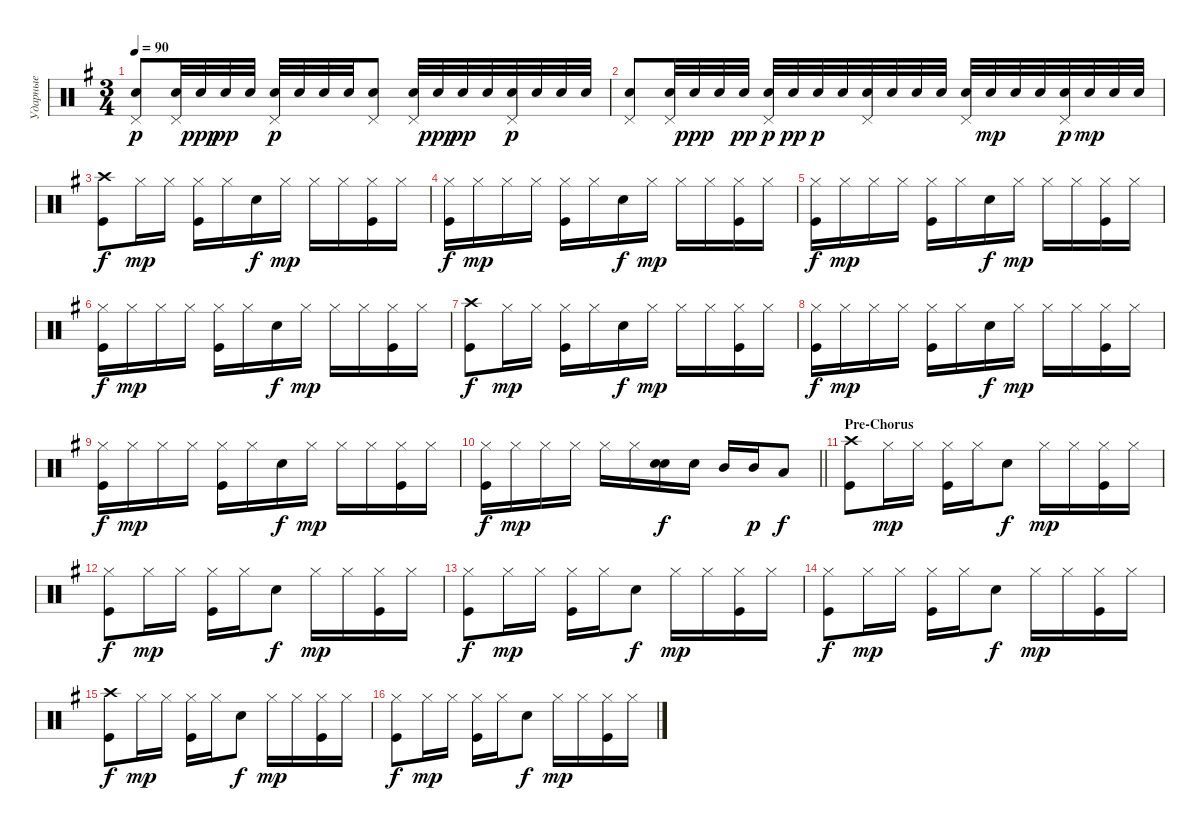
\track ("Ударные" "Ударные") {instrument percussion}
\staff {score}
\articulation defaults
\ts (3 4)
\tempo 90
\clef neutral
\ks eminor
("Snare (hit) 2" "Pedal Hi-Hat (hit)").8{dy p} ("Snare (hit) 2" "Pedal Hi-Hat (hit)").32 "Snare (hit) 2".32{dy ppp} "Snare (hit) 2".32{dy pp} "Snare (hit) 2".32 ("Snare (hit) 2" "Pedal Hi-Hat (hit)").32{dy p} "Snare (hit) 2".32 "Snare (hit) 2".32 "Snare (hit) 2".32 ("Snare (hit) 2" "Pedal Hi-Hat (hit)").8 ("Snare (hit) 2" "Pedal Hi-Hat (hit)").32 "Snare (hit) 2".32{dy ppp} "Snare (hit) 2".32{dy pp} "Snare (hit) 2".32 ("Snare (hit) 2" "Pedal Hi-Hat (hit)").32{dy p} "Snare (hit) 2".32 "Snare (hit) 2".32 "Snare (hit) 2".32 |
("Snare (hit) 2" "Pedal Hi-Hat (hit)").8 ("Snare (hit) 2" "Pedal Hi-Hat (hit)").32 "Snare (hit) 2".32{dy ppp} "Snare (hit) 2".32 "Snare (hit) 2".32{dy pp} ("Snare (hit) 2" "Pedal Hi-Hat (hit)").32{dy p} "Snare (hit) 2".32{dy pp} "Snare (hit) 2".32{dy p} "Snare (hit) 2".32 ("Snare (hit) 2" "Pedal Hi-Hat (hit)").32 "Snare (hit) 2".32 "Snare (hit) 2".32 "Snare (hit) 2".32 ("Snare (hit) 2" "Pedal Hi-Hat (hit)").32 "Snare (hit) 2".32{dy mp} "Snare (hit) 2".32 "Snare (hit) 2".32 ("Snare (hit) 2" "Pedal Hi-Hat (hit)").32{dy p} "Snare (hit) 2".32{dy mp} "Snare (hit) 2".32 "Snare (hit) 2".32 |
("Crash high (hit)" "Kick (hit)").8{dy f} "Hi-Hat (closed)".16{dy mp} "Hi-Hat (closed)".16 ("Hi-Hat (closed)" "Kick (hit)").16 "Hi-Hat (closed)".16 "Snare (hit) 2".16{dy f} "Hi-Hat (closed)".16{dy mp} "Hi-Hat (closed)".16 "Hi-Hat (closed)".16 ("Hi-Hat (closed)" "Kick (hit)").16 "Hi-Hat (closed)".16 |
("Hi-Hat (closed)" "Kick (hit)").16{dy f} "Hi-Hat (closed)".16{dy mp} "Hi-Hat (closed)".16 "Hi-Hat (closed)".16 ("Hi-Hat (closed)" "Kick (hit)").16 "Hi-Hat (closed)".16 "Snare (hit) 2".16{dy f} "Hi-Hat (closed)".16{dy mp} "Hi-Hat (closed)".16 "Hi-Hat (closed)".16 ("Hi-Hat (closed)" "Kick (hit)").16 "Hi-Hat (closed)".16 |
("Hi-Hat (closed)" "Kick (hit)").16{dy f} "Hi-Hat (closed)".16{dy mp} "Hi-Hat (closed)".16 "Hi-Hat (closed)".16 ("Hi-Hat (closed)" "Kick (hit)").16 "Hi-Hat (closed)".16 "Snare (hit) 2".16{dy f} "Hi-Hat (closed)".16{dy mp} "Hi-Hat (closed)".16 "Hi-Hat (closed)".16 ("Hi-Hat (closed)" "Kick (hit)").16 "Hi-Hat (closed)".16 |
("Hi-Hat (closed)" "Kick (hit)").16{dy f} "Hi-Hat (closed)".16{dy mp} "Hi-Hat (closed)".16 "Hi-Hat (closed)".16 ("Hi-Hat (closed)" "Kick (hit)").16 "Hi-Hat (closed)".16 "Snare (hit) 2".16{dy f} "Hi-Hat (closed)".16{dy mp} "Hi-Hat (closed)".16 "Hi-Hat (closed)".16 ("Hi-Hat (closed)" "Kick (hit)").16 "Hi-Hat (closed)".16 |
("Crash high (hit)" "Kick (hit)").8{dy f} "Hi-Hat (closed)".16{dy mp} "Hi-Hat (closed)".16 ("Hi-Hat (closed)" "Kick (hit)").16 "Hi-Hat (closed)".16 "Snare (hit) 2".16{dy f} "Hi-Hat (closed)".16{dy mp} "Hi-Hat (closed)".16 "Hi-Hat (closed)".16 ("Hi-Hat (closed)" "Kick (hit)").16 "Hi-Hat (closed)".16 |
("Hi-Hat (closed)" "Kick (hit)").16{dy f} "Hi-Hat (closed)".16{dy mp} "Hi-Hat (closed)".16 "Hi-Hat (closed)".16 ("Hi-Hat (closed)" "Kick (hit)").16 "Hi-Hat (closed)".16 "Snare (hit) 2".16{dy f} "Hi-Hat (closed)".16{dy mp} "Hi-Hat (closed)".16 "Hi-Hat (closed)".16 ("Hi-Hat (closed)" "Kick (hit)").16 "Hi-Hat (closed)".16 |
("Hi-Hat (closed)" "Kick (hit)").16{dy f} "Hi-Hat (closed)".16{dy mp} "Hi-Hat (closed)".16 "Hi-Hat (closed)".16 ("Hi-Hat (closed)" "Kick (hit)").16 "Hi-Hat (closed)".16 "Snare (hit) 2".16{dy f} "Hi-Hat (closed)".16{dy mp} "Hi-Hat (closed)".16 "Hi-Hat (closed)".16 ("Hi-Hat (closed)" "Kick (hit)").16 "Hi-Hat (closed)".16 |
\barLineRight lightlight
("Hi-Hat (closed)" "Kick (hit)").16{dy f} "Hi-Hat (closed)".16{dy mp} "Hi-Hat (closed)".16 "Hi-Hat (closed)".16 "Hi-Hat (closed)".16 "Hi-Hat (closed)".16 ("Snare (hit) 2" "Snare (hit) 2").16{bd 240 dy f} "Snare (hit) 2".16 "Mid Tom (hit)".16 "Mid Tom (hit)".16{dy p} "Low Tom (hit)".8{dy f} |
\section ("" "Pre-Chorus")
("Crash high (hit)" "Kick (hit)").8 "Hi-Hat (closed)".16{dy mp} "Hi-Hat (closed)".16 ("Hi-Hat (closed)" "Kick (hit)").16 "Hi-Hat (closed)".16 "Snare (hit) 2".8{dy f} "Hi-Hat (closed)".16{dy mp} "Hi-Hat (closed)".16 ("Hi-Hat (closed)" "Kick (hit)").16 "Hi-Hat (closed)".16 |
("Hi-Hat (closed)" "Kick (hit)").8{dy f} "Hi-Hat (closed)".16{dy mp} "Hi-Hat (closed)".16 ("Hi-Hat (closed)" "Kick (hit)").16 "Hi-Hat (closed)".16 "Snare (hit) 2".8{dy f} "Hi-Hat (closed)".16{dy mp} "Hi-Hat (closed)".16 ("Hi-Hat (closed)" "Kick (hit)").16 "Hi-Hat (closed)".16 |
("Hi-Hat (closed)" "Kick (hit)").8{dy f} "Hi-Hat (closed)".16{dy mp} "Hi-Hat (closed)".16 ("Hi-Hat (closed)" "Kick (hit)").16 "Hi-Hat (closed)".16 "Snare (hit) 2".8{dy f} "Hi-Hat (closed)".16{dy mp} "Hi-Hat (closed)".16 ("Hi-Hat (closed)" "Kick (hit)").16 "Hi-Hat (closed)".16 |
("Hi-Hat (closed)" "Kick (hit)").8{dy f} "Hi-Hat (closed)".16{dy mp} "Hi-Hat (closed)".16 ("Hi-Hat (closed)" "Kick (hit)").16 "Hi-Hat (closed)".16 "Snare (hit) 2".8{dy f} "Hi-Hat (closed)".16{dy mp} "Hi-Hat (closed)".16 ("Hi-Hat (closed)" "Kick (hit)").16 "Hi-Hat (closed)".16 |
("Crash high (hit)" "Kick (hit)").8{dy f} "Hi-Hat (closed)".16{dy mp} "Hi-Hat (closed)".16 ("Hi-Hat (closed)" "Kick (hit)").16 "Hi-Hat (closed)".16 "Snare (hit) 2".8{dy f} "Hi-Hat (closed)".16{dy mp} "Hi-Hat (closed)".16 ("Hi-Hat (closed)" "Kick (hit)").16 "Hi-Hat (closed)".16 |
("Hi-Hat (closed)" "Kick (hit)").8{dy f} "Hi-Hat (closed)".16{dy mp} "Hi-Hat (closed)".16 ("Hi-Hat (closed)" "Kick (hit)").16 "Hi-Hat (closed)".16 "Snare (hit) 2".8{dy f} "Hi-Hat (closed)".16{dy mp} "Hi-Hat (closed)".16 ("Hi-Hat (closed)" "Kick (hit)").16 "Hi-Hat (closed)".16
